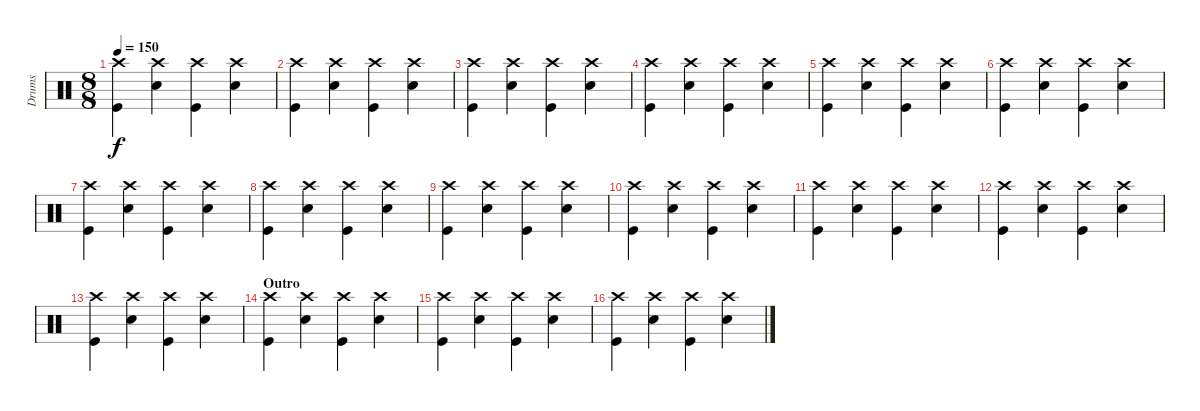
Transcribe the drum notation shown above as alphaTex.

\track ("Drums" "Drums") {instrument percussion}
\staff {score}
\articulation defaults
\ts (8 8)
\tempo 150
\clef neutral
\ks c
("Crash high (hit)" "Kick (hit)").4{dy f} ("Crash high (hit)" "Snare (hit) 2").4 ("Crash high (hit)" "Kick (hit)").4 ("Crash high (hit)" "Snare (hit) 2").4 |
("Crash high (hit)" "Kick (hit)").4 ("Crash high (hit)" "Snare (hit) 2").4 ("Crash high (hit)" "Kick (hit)").4 ("Crash high (hit)" "Snare (hit) 2").4 |
("Crash high (hit)" "Kick (hit)").4 ("Crash high (hit)" "Snare (hit) 2").4 ("Crash high (hit)" "Kick (hit)").4 ("Crash high (hit)" "Snare (hit) 2").4 |
("Crash high (hit)" "Kick (hit)").4 ("Crash high (hit)" "Snare (hit) 2").4 ("Crash high (hit)" "Kick (hit)").4 ("Crash high (hit)" "Snare (hit) 2").4 |
("Crash high (hit)" "Kick (hit)").4 ("Crash high (hit)" "Snare (hit) 2").4 ("Crash high (hit)" "Kick (hit)").4 ("Crash high (hit)" "Snare (hit) 2").4 |
("Crash high (hit)" "Kick (hit)").4 ("Crash high (hit)" "Snare (hit) 2").4 ("Crash high (hit)" "Kick (hit)").4 ("Crash high (hit)" "Snare (hit) 2").4 |
("Crash high (hit)" "Kick (hit)").4 ("Crash high (hit)" "Snare (hit) 2").4 ("Crash high (hit)" "Kick (hit)").4 ("Crash high (hit)" "Snare (hit) 2").4 |
("Crash high (hit)" "Kick (hit)").4 ("Crash high (hit)" "Snare (hit) 2").4 ("Crash high (hit)" "Kick (hit)").4 ("Crash high (hit)" "Snare (hit) 2").4 |
("Crash high (hit)" "Kick (hit)").4 ("Crash high (hit)" "Snare (hit) 2").4 ("Crash high (hit)" "Kick (hit)").4 ("Crash high (hit)" "Snare (hit) 2").4 |
("Crash high (hit)" "Kick (hit)").4 ("Crash high (hit)" "Snare (hit) 2").4 ("Crash high (hit)" "Kick (hit)").4 ("Crash high (hit)" "Snare (hit) 2").4 |
("Crash high (hit)" "Kick (hit)").4 ("Crash high (hit)" "Snare (hit) 2").4 ("Crash high (hit)" "Kick (hit)").4 ("Crash high (hit)" "Snare (hit) 2").4 |
("Crash high (hit)" "Kick (hit)").4 ("Crash high (hit)" "Snare (hit) 2").4 ("Crash high (hit)" "Kick (hit)").4 ("Crash high (hit)" "Snare (hit) 2").4 |
("Crash high (hit)" "Kick (hit)").4 ("Crash high (hit)" "Snare (hit) 2").4 ("Crash high (hit)" "Kick (hit)").4 ("Crash high (hit)" "Snare (hit) 2").4 |
\section ("" "Outro")
("Crash high (hit)" "Kick (hit)").4 ("Crash high (hit)" "Snare (hit) 2").4 ("Crash high (hit)" "Kick (hit)").4 ("Crash high (hit)" "Snare (hit) 2").4 |
("Crash high (hit)" "Kick (hit)").4 ("Crash high (hit)" "Snare (hit) 2").4 ("Crash high (hit)" "Kick (hit)").4 ("Crash high (hit)" "Snare (hit) 2").4 |
("Crash high (hit)" "Kick (hit)").4 ("Crash high (hit)" "Snare (hit) 2").4 ("Crash high (hit)" "Kick (hit)").4 ("Crash high (hit)" "Snare (hit) 2").4
